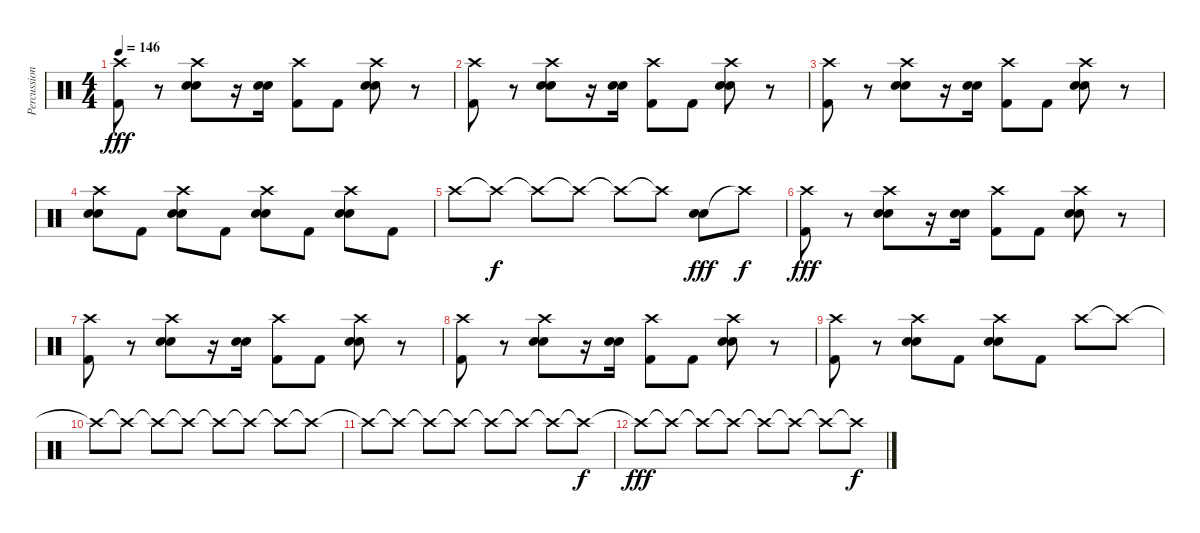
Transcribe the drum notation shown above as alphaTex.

\track ("Percussion" "Percussion") {instrument percussion}
\staff {score}
\articulation defaults
\ts (4 4)
\tempo 146
\clef neutral
\ks c
("Crash high (hit)" "Kick (hit) 2").8{dy fff} r.8 ("Crash high (hit)" "Electric Snare (hit)" "Snare (hit) 2").8 r.16 ("Electric Snare (hit)" "Snare (hit) 2").16 ("Crash high (hit)" "Kick (hit) 2").8 "Kick (hit) 2".8 ("Crash high (hit)" "Electric Snare (hit)" "Snare (hit) 2").8 r.8 |
("Crash high (hit)" "Kick (hit) 2").8 r.8 ("Crash high (hit)" "Electric Snare (hit)" "Snare (hit) 2").8 r.16 ("Electric Snare (hit)" "Snare (hit) 2").16 ("Crash high (hit)" "Kick (hit) 2").8 "Kick (hit) 2".8 ("Crash high (hit)" "Electric Snare (hit)" "Snare (hit) 2").8 r.8 |
("Crash high (hit)" "Kick (hit) 2").8 r.8 ("Crash high (hit)" "Electric Snare (hit)" "Snare (hit) 2").8 r.16 ("Electric Snare (hit)" "Snare (hit) 2").16 ("Crash high (hit)" "Kick (hit) 2").8 "Kick (hit) 2".8 ("Crash high (hit)" "Electric Snare (hit)" "Snare (hit) 2").8 r.8 |
("Crash high (hit)" "Electric Snare (hit)" "Snare (hit) 2").8 "Kick (hit) 2".8 ("Crash high (hit)" "Electric Snare (hit)" "Snare (hit) 2").8 "Kick (hit) 2".8 ("Crash high (hit)" "Electric Snare (hit)" "Snare (hit) 2").8 "Kick (hit) 2".8 ("Crash high (hit)" "Electric Snare (hit)" "Snare (hit) 2").8 "Kick (hit) 2".8 |
"Crash high (hit)".8 "Crash high (hit)"{t}.8{dy f} "Crash high (hit)"{t}.8 "Crash high (hit)"{t}.8 "Crash high (hit)"{t}.8 "Crash high (hit)"{t}.8 ("Electric Snare (hit)" "Snare (hit) 2").8{dy fff} "Crash high (hit)"{t}.8{dy f} |
("Crash high (hit)" "Kick (hit) 2").8{dy fff} r.8 ("Crash high (hit)" "Electric Snare (hit)" "Snare (hit) 2").8 r.16 ("Electric Snare (hit)" "Snare (hit) 2").16 ("Crash high (hit)" "Kick (hit) 2").8 "Kick (hit) 2".8 ("Crash high (hit)" "Electric Snare (hit)" "Snare (hit) 2").8 r.8 |
("Crash high (hit)" "Kick (hit) 2").8 r.8 ("Crash high (hit)" "Electric Snare (hit)" "Snare (hit) 2").8 r.16 ("Electric Snare (hit)" "Snare (hit) 2").16 ("Crash high (hit)" "Kick (hit) 2").8 "Kick (hit) 2".8 ("Crash high (hit)" "Electric Snare (hit)" "Snare (hit) 2").8 r.8 |
("Crash high (hit)" "Kick (hit) 2").8 r.8 ("Crash high (hit)" "Electric Snare (hit)" "Snare (hit) 2").8 r.16 ("Electric Snare (hit)" "Snare (hit) 2").16 ("Crash high (hit)" "Kick (hit) 2").8 "Kick (hit) 2".8 ("Crash high (hit)" "Electric Snare (hit)" "Snare (hit) 2").8 r.8 |
("Crash high (hit)" "Kick (hit) 2").8 r.8 ("Crash high (hit)" "Snare (hit) 2" "Electric Snare (hit)").8 "Kick (hit) 2".8 ("Crash high (hit)" "Snare (hit) 2" "Electric Snare (hit)").8 "Kick (hit) 2".8 "Crash high (hit)".8 "Crash high (hit)"{t}.8 |
"Crash high (hit)"{t}.8 "Crash high (hit)"{t}.8 "Crash high (hit)"{t}.8 "Crash high (hit)"{t}.8 "Crash high (hit)"{t}.8 "Crash high (hit)"{t}.8 "Crash high (hit)"{t}.8 "Crash high (hit)"{t}.8 |
"Crash high (hit)"{t}.8 "Crash high (hit)"{t}.8 "Crash high (hit)"{t}.8 "Crash high (hit)"{t}.8 "Crash high (hit)"{t}.8 "Crash high (hit)"{t}.8 "Crash high (hit)"{t}.8 "Crash high (hit)"{t}.8{dy f} |
"Crash high (hit)"{t}.8{dy fff} "Crash high (hit)"{t}.8 "Crash high (hit)"{t}.8 "Crash high (hit)"{t}.8 "Crash high (hit)"{t}.8 "Crash high (hit)"{t}.8 "Crash high (hit)"{t}.8 "Crash high (hit)"{t}.8{dy f}
